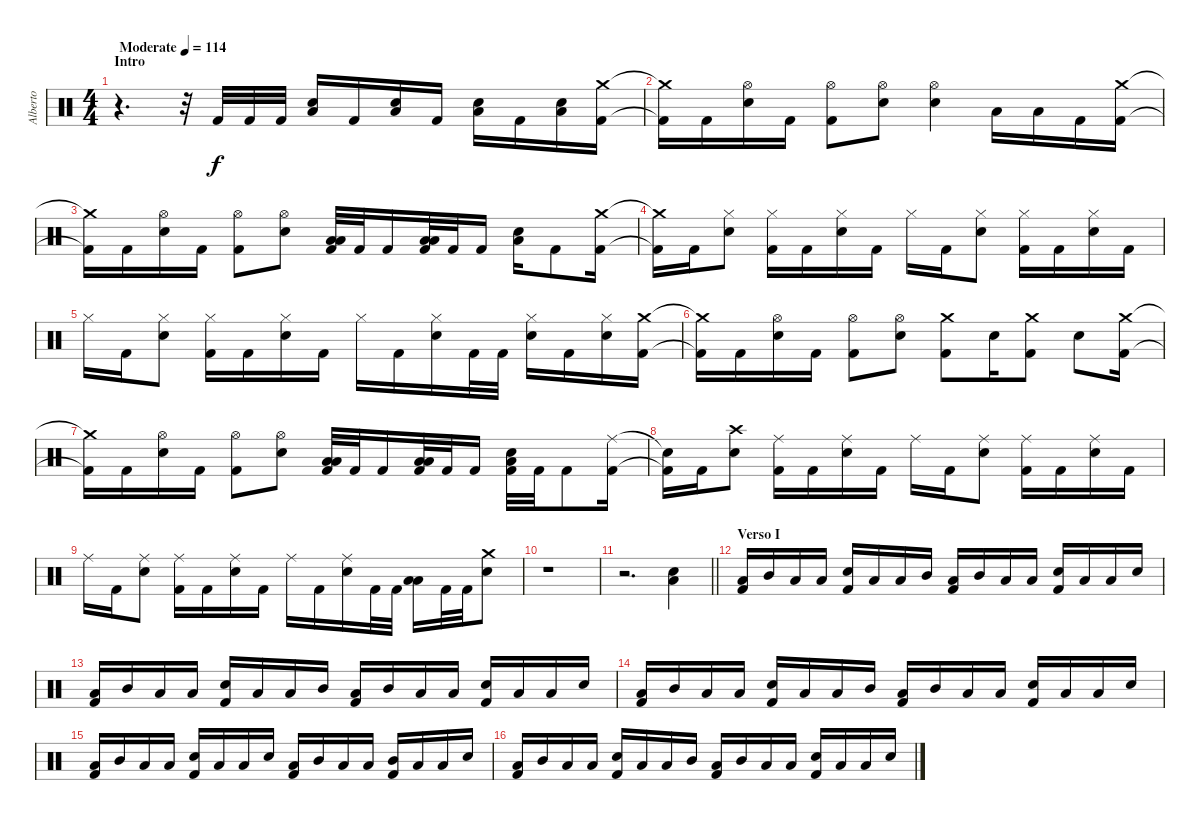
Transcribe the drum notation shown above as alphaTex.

\track ("Alberto" "Alberto") {instrument percussion}
\staff
\articulation defaults
\ts (4 4)
\section ("" "Intro")
\tempo (114 "Moderate")
\clef neutral
\ks c
r.4{d dy f} r.32 "Kick (hit) 2".32 "Kick (hit) 2".32 "Kick (hit) 2".32 ("Electric Snare (hit)" "Low Floor Tom (hit)").16 "Kick (hit) 2".16 ("Electric Snare (hit)" "Low Floor Tom (hit)").16 "Kick (hit) 2".16 ("Electric Snare (hit)" "Low Floor Tom (hit)").16 "Kick (hit) 2".16 ("Electric Snare (hit)" "Low Floor Tom (hit)").16 ("Crash medium (hit)" "Kick (hit) 2").16 |
("Crash medium (hit)"{t} "Kick (hit) 2"{t}).16 "Kick (hit) 2".16 ("Hi-Hat (open)" "Electric Snare (hit)").16 "Kick (hit) 2".16 ("Hi-Hat (open)" "Kick (hit) 2").8 ("Hi-Hat (open)" "Electric Snare (hit)").8 ("Hi-Hat (open)" "Electric Snare (hit)").4 "Low Tom (hit)".16 "Low Tom (hit)".16 "Kick (hit) 2".16 ("Crash medium (hit)" "Kick (hit) 2").16 |
("Crash medium (hit)"{t} "Kick (hit) 2"{t}).16 "Kick (hit) 2".16 ("Hi-Hat (open)" "Electric Snare (hit)").16 "Kick (hit) 2".16 ("Hi-Hat (open)" "Kick (hit) 2").8 ("Hi-Hat (open)" "Electric Snare (hit)").8 ("Low Tom (hit)" "Low Floor Tom (hit)" "Kick (hit) 2").32 "Kick (hit) 2".32 "Kick (hit) 2".16 ("Low Tom (hit)" "Low Floor Tom (hit)" "Kick (hit) 2").32 "Kick (hit) 2".32 "Kick (hit) 2".16 ("Electric Snare (hit)" "Low Floor Tom (hit)").16 "Kick (hit) 2".8 ("Crash medium (hit)" "Kick (hit) 2").16 |
("Crash medium (hit)"{t} "Kick (hit) 2"{t}).16 "Kick (hit) 2".16 ("Hi-Hat (closed)" "Electric Snare (hit)").8 ("Hi-Hat (closed)" "Kick (hit) 2").16 "Kick (hit) 2".16 ("Hi-Hat (closed)" "Electric Snare (hit)").16 "Kick (hit) 2".16 "Hi-Hat (closed)".16 "Kick (hit) 2".16 ("Hi-Hat (closed)" "Electric Snare (hit)").8 ("Hi-Hat (closed)" "Kick (hit) 2").16 "Kick (hit) 2".16 ("Hi-Hat (closed)" "Electric Snare (hit)").16 "Kick (hit) 2".16 |
"Hi-Hat (closed)".16 "Kick (hit) 2".16 ("Hi-Hat (closed)" "Electric Snare (hit)").8 ("Hi-Hat (closed)" "Kick (hit) 2").16 "Kick (hit) 2".16 ("Hi-Hat (closed)" "Electric Snare (hit)").16 "Kick (hit) 2".16 "Hi-Hat (closed)".16 "Kick (hit) 2".16 ("Hi-Hat (closed)" "Electric Snare (hit)").16 "Kick (hit) 2".32 "Kick (hit) 2".32 ("Hi-Hat (closed)" "Electric Snare (hit)").16 "Kick (hit) 2".16 ("Hi-Hat (closed)" "Electric Snare (hit)").16 ("Crash medium (hit)" "Kick (hit) 2").16 |
("Crash medium (hit)"{t} "Kick (hit) 2"{t}).16 "Kick (hit) 2".16 ("Hi-Hat (open)" "Electric Snare (hit)").16 "Kick (hit) 2".16 ("Hi-Hat (open)" "Kick (hit) 2").8 ("Hi-Hat (open)" "Electric Snare (hit)").8 ("Crash medium (hit)" "Kick (hit) 2").8 "Electric Snare (hit)".16 ("Crash medium (hit)" "Kick (hit) 2").8 "Electric Snare (hit)".8 ("Crash medium (hit)" "Kick (hit) 2").16 |
("Crash medium (hit)"{t} "Kick (hit) 2"{t}).16 "Kick (hit) 2".16 ("Hi-Hat (open)" "Electric Snare (hit)").16 "Kick (hit) 2".16 ("Hi-Hat (open)" "Kick (hit) 2").8 ("Hi-Hat (open)" "Electric Snare (hit)").8 ("Low Tom (hit)" "Low Floor Tom (hit)" "Kick (hit) 2").32 "Kick (hit) 2".32 "Kick (hit) 2".16 ("Low Tom (hit)" "Low Floor Tom (hit)" "Kick (hit) 2").32 "Kick (hit) 2".32 "Kick (hit) 2".16 ("Electric Snare (hit)" "Low Floor Tom (hit)" "Kick (hit) 2").32 "Kick (hit) 2".32 "Kick (hit) 2".8 ("Ride (middle)" "Kick (hit) 2").16 |
("Snare (hit)"{t} "Kick (hit) 2"{t}).16 "Kick (hit) 2".16 ("Crash high (hit)" "Electric Snare (hit)").8 ("Ride (middle)" "Kick (hit) 2").16 "Kick (hit) 2".16 ("Ride (middle)" "Electric Snare (hit)").16 "Kick (hit) 2".16 "Ride (middle)".16 "Kick (hit) 2".16 ("Ride (middle)" "Electric Snare (hit)").8 ("Ride (middle)" "Kick (hit) 2").16 "Kick (hit) 2".16 ("Ride (middle)" "Electric Snare (hit)").16 "Kick (hit) 2".16 |
"Ride (middle)".16 "Kick (hit) 2".16 ("Ride (middle)" "Electric Snare (hit)").8 ("Ride (middle)" "Kick (hit) 2").16 "Kick (hit) 2".16 ("Ride (middle)" "Electric Snare (hit)").16 "Kick (hit) 2".16 "Ride (middle)".16 "Kick (hit) 2".16 ("Ride (middle)" "Electric Snare (hit)").16 "Kick (hit) 2".32 "Kick (hit) 2".32 ("Low Tom (hit)" "Low Floor Tom (hit)").16 "Kick (hit) 2".32 "Kick (hit) 2".32 ("Crash medium (hit)" "Electric Snare (hit)").8 |
r.1 |
\barLineRight lightlight
r.2{d} ("Electric Snare (hit)" "Low Floor Tom (hit)").4 |
\section ("" "Verso I")
("Low Floor Tom (hit)" "Kick (hit) 2").16 "Mid Tom (hit)".16 "Low Floor Tom (hit)".16 "Low Floor Tom (hit)".16 ("Electric Snare (hit)" "Kick (hit) 2").16 "Low Floor Tom (hit)".16 "Low Floor Tom (hit)".16 "Mid Tom (hit)".16 ("Low Floor Tom (hit)" "Kick (hit) 2").16 "Mid Tom (hit)".16 "Low Floor Tom (hit)".16 "Low Floor Tom (hit)".16 ("Electric Snare (hit)" "Kick (hit) 2").16 "Low Floor Tom (hit)".16 "Low Floor Tom (hit)".16 "Electric Snare (hit)".16 |
("Low Floor Tom (hit)" "Kick (hit) 2").16 "Mid Tom (hit)".16 "Low Floor Tom (hit)".16 "Low Floor Tom (hit)".16 ("Electric Snare (hit)" "Kick (hit) 2").16 "Low Floor Tom (hit)".16 "Low Floor Tom (hit)".16 "Mid Tom (hit)".16 ("Low Floor Tom (hit)" "Kick (hit) 2").16 "Mid Tom (hit)".16 "Low Floor Tom (hit)".16 "Low Floor Tom (hit)".16 ("Electric Snare (hit)" "Kick (hit) 2").16 "Low Floor Tom (hit)".16 "Low Floor Tom (hit)".16 "Electric Snare (hit)".16 |
("Low Floor Tom (hit)" "Kick (hit) 2").16 "Mid Tom (hit)".16 "Low Floor Tom (hit)".16 "Low Floor Tom (hit)".16 ("Electric Snare (hit)" "Kick (hit) 2").16 "Low Floor Tom (hit)".16 "Low Floor Tom (hit)".16 "Mid Tom (hit)".16 ("Low Floor Tom (hit)" "Kick (hit) 2").16 "Mid Tom (hit)".16 "Low Floor Tom (hit)".16 "Low Floor Tom (hit)".16 ("Electric Snare (hit)" "Kick (hit) 2").16 "Low Floor Tom (hit)".16 "Low Floor Tom (hit)".16 "Electric Snare (hit)".16 |
("Low Floor Tom (hit)" "Kick (hit) 2").16 "Mid Tom (hit)".16 "Low Floor Tom (hit)".16 "Low Floor Tom (hit)".16 ("Electric Snare (hit)" "Kick (hit) 2").16 "Low Floor Tom (hit)".16 "Low Floor Tom (hit)".16 "Electric Snare (hit)".16 ("Low Floor Tom (hit)" "Kick (hit) 2").16 "Mid Tom (hit)".16 "Low Floor Tom (hit)".16 "Low Floor Tom (hit)".16 ("Mid Tom (hit)" "Kick (hit) 2").16 "Low Floor Tom (hit)".16 "Low Floor Tom (hit)".16 "Electric Snare (hit)".16 |
("Low Floor Tom (hit)" "Kick (hit) 2").16 "Mid Tom (hit)".16 "Low Floor Tom (hit)".16 "Low Floor Tom (hit)".16 ("Electric Snare (hit)" "Kick (hit) 2").16 "Low Floor Tom (hit)".16 "Low Floor Tom (hit)".16 "Mid Tom (hit)".16 ("Low Floor Tom (hit)" "Kick (hit) 2").16 "Mid Tom (hit)".16 "Low Floor Tom (hit)".16 "Low Floor Tom (hit)".16 ("Electric Snare (hit)" "Kick (hit) 2").16 "Low Floor Tom (hit)".16 "Low Floor Tom (hit)".16 "Electric Snare (hit)".16
